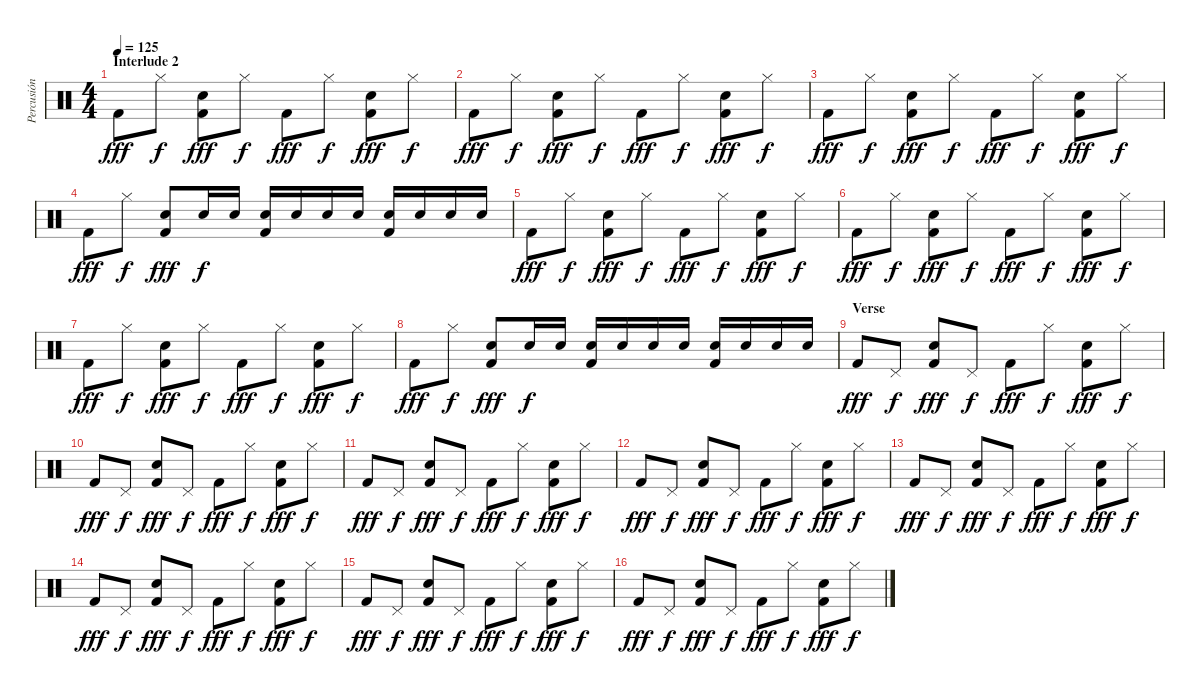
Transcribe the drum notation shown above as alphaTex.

\track ("Percusión" "Percusión") {instrument percussion}
\staff {score}
\articulation defaults
\ts (4 4)
\section ("" "Interlude 2")
\tempo 125
\clef neutral
\ks c "Kick (hit) 2".8{dy fff} "Hi-Hat (closed)".8{dy f}
("Electric Snare (hit)" "Kick (hit) 2").8{dy fff} "Hi-Hat (closed)".8{dy f} "Kick (hit) 2".8{dy fff} "Hi-Hat (closed)".8{dy f} ("Electric Snare (hit)" "Kick (hit) 2").8{dy fff} "Hi-Hat (closed)".8{dy f} |
"Kick (hit) 2".8{dy fff} "Hi-Hat (closed)".8{dy f} ("Electric Snare (hit)" "Kick (hit) 2").8{dy fff} "Hi-Hat (closed)".8{dy f} "Kick (hit) 2".8{dy fff} "Hi-Hat (closed)".8{dy f} ("Electric Snare (hit)" "Kick (hit) 2").8{dy fff} "Hi-Hat (closed)".8{dy f} |
"Kick (hit) 2".8{dy fff} "Hi-Hat (closed)".8{dy f} ("Electric Snare (hit)" "Kick (hit) 2").8{dy fff} "Hi-Hat (closed)".8{dy f} "Kick (hit) 2".8{dy fff} "Hi-Hat (closed)".8{dy f} ("Electric Snare (hit)" "Kick (hit) 2").8{dy fff} "Hi-Hat (closed)".8{dy f} |
"Kick (hit) 2".8{dy fff} "Hi-Hat (closed)".8{dy f} ("Electric Snare (hit)" "Kick (hit) 2").8{dy fff volume 7} "Electric Snare (hit)".16{dy f volume 13} "Electric Snare (hit)".16 ("Electric Snare (hit)" "Kick (hit) 2").16 "Electric Snare (hit)".16 "Electric Snare (hit)".16 "Electric Snare (hit)".16 ("Electric Snare (hit)" "Kick (hit) 2").16 "Electric Snare (hit)".16 "Electric Snare (hit)".16 "Electric Snare (hit)".16 |
"Kick (hit) 2".8{dy fff} "Hi-Hat (closed)".8{dy f} ("Electric Snare (hit)" "Kick (hit) 2").8{dy fff} "Hi-Hat (closed)".8{dy f} "Kick (hit) 2".8{dy fff} "Hi-Hat (closed)".8{dy f} ("Electric Snare (hit)" "Kick (hit) 2").8{dy fff} "Hi-Hat (closed)".8{dy f} |
"Kick (hit) 2".8{dy fff} "Hi-Hat (closed)".8{dy f} ("Electric Snare (hit)" "Kick (hit) 2").8{dy fff} "Hi-Hat (closed)".8{dy f} "Kick (hit) 2".8{dy fff} "Hi-Hat (closed)".8{dy f} ("Electric Snare (hit)" "Kick (hit) 2").8{dy fff} "Hi-Hat (closed)".8{dy f} |
"Kick (hit) 2".8{dy fff} "Hi-Hat (closed)".8{dy f} ("Electric Snare (hit)" "Kick (hit) 2").8{dy fff} "Hi-Hat (closed)".8{dy f} "Kick (hit) 2".8{dy fff} "Hi-Hat (closed)".8{dy f} ("Electric Snare (hit)" "Kick (hit) 2").8{dy fff} "Hi-Hat (closed)".8{dy f} |
"Kick (hit) 2".8{dy fff} "Hi-Hat (closed)".8{dy f} ("Electric Snare (hit)" "Kick (hit) 2").8{dy fff volume 7} "Electric Snare (hit)".16{dy f volume 13} "Electric Snare (hit)".16 ("Electric Snare (hit)" "Kick (hit) 2").16 "Electric Snare (hit)".16 "Electric Snare (hit)".16 "Electric Snare (hit)".16 ("Electric Snare (hit)" "Kick (hit) 2").16 "Electric Snare (hit)".16 "Electric Snare (hit)".16 "Electric Snare (hit)".16 |
\section ("" "Verse")
"Kick (hit) 2".8{dy fff} "Pedal Hi-Hat (hit)".8{dy f} ("Electric Snare (hit)" "Kick (hit) 2").8{dy fff} "Pedal Hi-Hat (hit)".8{dy f} "Kick (hit) 2".8{dy fff} "Hi-Hat (closed)".8{dy f} ("Electric Snare (hit)" "Kick (hit) 2").8{dy fff} "Hi-Hat (closed)".8{dy f} |
"Kick (hit) 2".8{dy fff} "Pedal Hi-Hat (hit)".8{dy f} ("Electric Snare (hit)" "Kick (hit) 2").8{dy fff} "Pedal Hi-Hat (hit)".8{dy f} "Kick (hit) 2".8{dy fff} "Hi-Hat (closed)".8{dy f} ("Electric Snare (hit)" "Kick (hit) 2").8{dy fff} "Hi-Hat (closed)".8{dy f} |
"Kick (hit) 2".8{dy fff} "Pedal Hi-Hat (hit)".8{dy f} ("Electric Snare (hit)" "Kick (hit) 2").8{dy fff} "Pedal Hi-Hat (hit)".8{dy f} "Kick (hit) 2".8{dy fff} "Hi-Hat (closed)".8{dy f} ("Electric Snare (hit)" "Kick (hit) 2").8{dy fff} "Hi-Hat (closed)".8{dy f} |
"Kick (hit) 2".8{dy fff} "Pedal Hi-Hat (hit)".8{dy f} ("Electric Snare (hit)" "Kick (hit) 2").8{dy fff} "Pedal Hi-Hat (hit)".8{dy f} "Kick (hit) 2".8{dy fff} "Hi-Hat (closed)".8{dy f} ("Electric Snare (hit)" "Kick (hit) 2").8{dy fff} "Hi-Hat (closed)".8{dy f} |
"Kick (hit) 2".8{dy fff} "Pedal Hi-Hat (hit)".8{dy f} ("Electric Snare (hit)" "Kick (hit) 2").8{dy fff} "Pedal Hi-Hat (hit)".8{dy f} "Kick (hit) 2".8{dy fff} "Hi-Hat (closed)".8{dy f} ("Electric Snare (hit)" "Kick (hit) 2").8{dy fff} "Hi-Hat (closed)".8{dy f} |
"Kick (hit) 2".8{dy fff} "Pedal Hi-Hat (hit)".8{dy f} ("Electric Snare (hit)" "Kick (hit) 2").8{dy fff} "Pedal Hi-Hat (hit)".8{dy f} "Kick (hit) 2".8{dy fff} "Hi-Hat (closed)".8{dy f} ("Electric Snare (hit)" "Kick (hit) 2").8{dy fff} "Hi-Hat (closed)".8{dy f} |
"Kick (hit) 2".8{dy fff} "Pedal Hi-Hat (hit)".8{dy f} ("Electric Snare (hit)" "Kick (hit) 2").8{dy fff} "Pedal Hi-Hat (hit)".8{dy f} "Kick (hit) 2".8{dy fff} "Hi-Hat (closed)".8{dy f} ("Electric Snare (hit)" "Kick (hit) 2").8{dy fff} "Hi-Hat (closed)".8{dy f} |
"Kick (hit) 2".8{dy fff} "Pedal Hi-Hat (hit)".8{dy f} ("Electric Snare (hit)" "Kick (hit) 2").8{dy fff} "Pedal Hi-Hat (hit)".8{dy f} "Kick (hit) 2".8{dy fff} "Hi-Hat (closed)".8{dy f} ("Electric Snare (hit)" "Kick (hit) 2").8{dy fff} "Hi-Hat (closed)".8{dy f}
